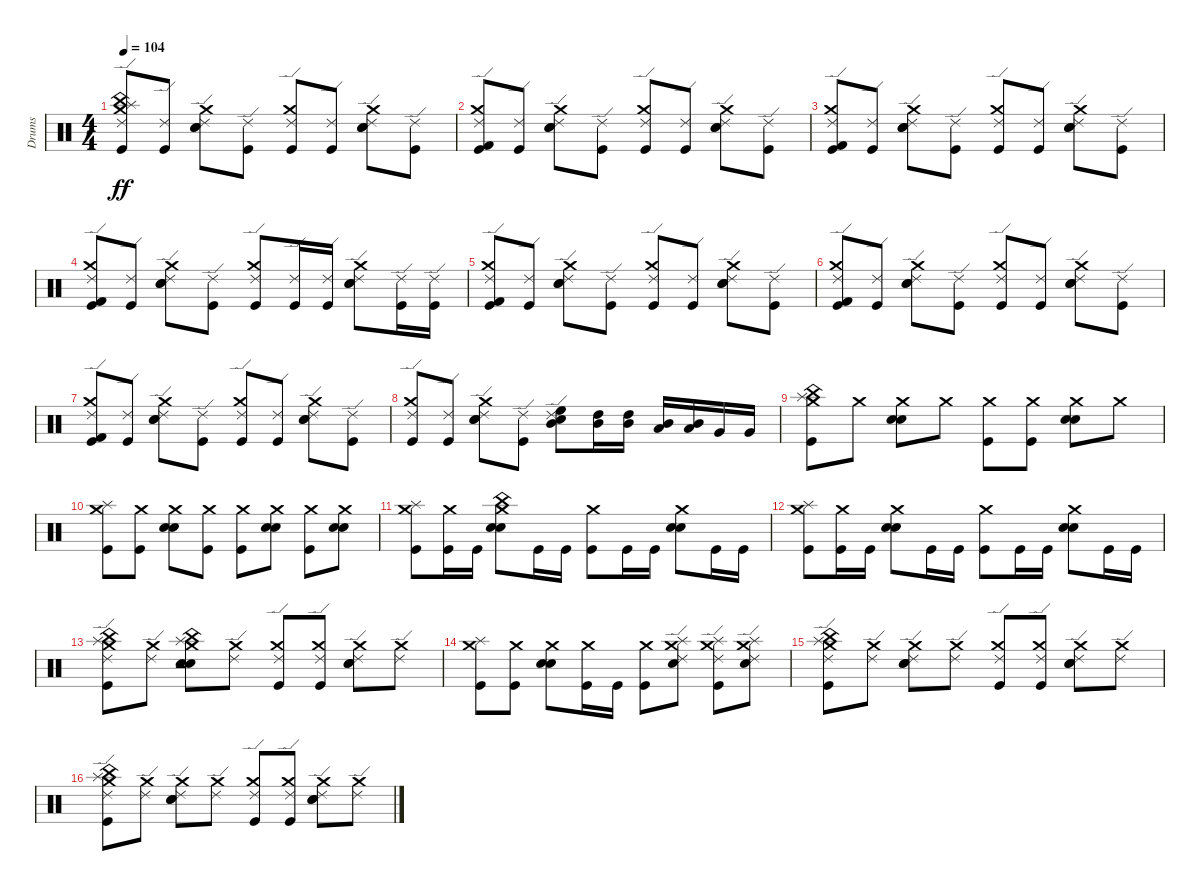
\track ("Drums" "Drums") {instrument percussion}
\staff {score}
\articulation defaults
\ts (4 4)
\tempo 104
\clef neutral
\ks c
("Kick (hit)" "China (hit)" "Splash (hit)" "Crash medium (hit)" "Ride (edge) 2").8{dy ff} ("Kick (hit)" "Ride (edge) 2").8 ("Snare (hit) 2" "Electric Snare (hit)" "Crash medium (hit)" "Ride (edge) 2").8 ("Kick (hit)" "Ride (edge) 2").8 ("Kick (hit)" "Crash medium (hit)" "Ride (edge) 2").8 ("Kick (hit)" "Ride (edge) 2").8 ("Snare (hit) 2" "Electric Snare (hit)" "Crash medium (hit)" "Ride (edge) 2").8 ("Kick (hit)" "Ride (edge) 2").8 |
("Kick (hit)" "Kick (hit) 2" "Crash medium (hit)" "Ride (edge) 2").8 ("Kick (hit)" "Ride (edge) 2").8 ("Snare (hit) 2" "Electric Snare (hit)" "Crash medium (hit)" "Ride (edge) 2").8 ("Kick (hit)" "Ride (edge) 2").8 ("Kick (hit)" "Crash medium (hit)" "Ride (edge) 2").8 ("Kick (hit)" "Ride (edge) 2").8 ("Snare (hit) 2" "Electric Snare (hit)" "Crash medium (hit)" "Ride (edge) 2").8 ("Kick (hit)" "Ride (edge) 2").8 |
("Kick (hit)" "Kick (hit) 2" "Crash medium (hit)" "Ride (edge) 2").8 ("Kick (hit)" "Ride (edge) 2").8 ("Snare (hit) 2" "Electric Snare (hit)" "Crash medium (hit)" "Ride (edge) 2").8 ("Kick (hit)" "Ride (edge) 2").8 ("Kick (hit)" "Crash medium (hit)" "Ride (edge) 2").8 ("Kick (hit)" "Ride (edge) 2").8 ("Snare (hit) 2" "Electric Snare (hit)" "Crash medium (hit)" "Ride (edge) 2").8 ("Kick (hit)" "Ride (edge) 2").8 |
("Kick (hit)" "Kick (hit) 2" "Crash medium (hit)" "Ride (edge) 2").8 ("Kick (hit)" "Ride (edge) 2").8 ("Snare (hit) 2" "Electric Snare (hit)" "Crash medium (hit)" "Ride (edge) 2").8 ("Kick (hit)" "Ride (edge) 2").8 ("Kick (hit)" "Crash medium (hit)" "Ride (edge) 2").8 ("Kick (hit)" "Ride (edge) 2").16 ("Kick (hit)" "Ride (edge) 2").16 ("Snare (hit) 2" "Electric Snare (hit)" "Crash medium (hit)" "Ride (edge) 2").8 ("Kick (hit)" "Ride (edge) 2").16 ("Kick (hit)" "Ride (edge) 2").16 |
("Kick (hit)" "Kick (hit) 2" "Crash medium (hit)" "Ride (edge) 2").8 ("Kick (hit)" "Ride (edge) 2").8 ("Snare (hit) 2" "Electric Snare (hit)" "Crash medium (hit)" "Ride (edge) 2").8 ("Kick (hit)" "Ride (edge) 2").8 ("Kick (hit)" "Crash medium (hit)" "Ride (edge) 2").8 ("Kick (hit)" "Ride (edge) 2").8 ("Snare (hit) 2" "Electric Snare (hit)" "Crash medium (hit)" "Ride (edge) 2").8 ("Kick (hit)" "Ride (edge) 2").8 |
("Kick (hit)" "Kick (hit) 2" "Crash medium (hit)" "Ride (edge) 2").8 ("Kick (hit)" "Ride (edge) 2").8 ("Snare (hit) 2" "Electric Snare (hit)" "Crash medium (hit)" "Ride (edge) 2").8 ("Kick (hit)" "Ride (edge) 2").8 ("Kick (hit)" "Crash medium (hit)" "Ride (edge) 2").8 ("Kick (hit)" "Ride (edge) 2").8 ("Snare (hit) 2" "Electric Snare (hit)" "Crash medium (hit)" "Ride (edge) 2").8 ("Kick (hit)" "Ride (edge) 2").8 |
("Kick (hit)" "Kick (hit) 2" "Crash medium (hit)" "Ride (edge) 2").8 ("Kick (hit)" "Ride (edge) 2").8 ("Snare (hit) 2" "Electric Snare (hit)" "Crash medium (hit)" "Ride (edge) 2").8 ("Kick (hit)" "Ride (edge) 2").8 ("Kick (hit)" "Crash medium (hit)" "Ride (edge) 2").8 ("Kick (hit)" "Ride (edge) 2").8 ("Snare (hit) 2" "Electric Snare (hit)" "Crash medium (hit)" "Ride (edge) 2").8 ("Kick (hit)" "Ride (edge) 2").8 |
("Kick (hit)" "Crash medium (hit)" "Ride (edge) 2").8 ("Kick (hit)" "Ride (edge) 2").8 ("Snare (hit) 2" "Electric Snare (hit)" "Crash medium (hit)" "Ride (edge) 2").8 ("Kick (hit)" "Ride (edge) 2").8 ("Snare (hit) 2" "Mid Tom (hit)" "High Floor Tom (hit)" "Ride (edge) 2").8 ("Mid Tom (hit)" "High Tom (hit)").16 ("Mid Tom (hit)" "High Tom (hit)").16 ("Low Tom (hit)" "Mid Tom (hit)").16 ("Low Tom (hit)" "Mid Tom (hit)").16 "Very Low Tom (hit)".16 "Very Low Tom (hit)".16 |
("Kick (hit)" "China (hit)" "Splash (hit)" "Crash medium (hit)").8 "Crash medium (hit)".8 ("Snare (hit) 2" "Electric Snare (hit)" "Crash medium (hit)").8 "Crash medium (hit)".8 ("Kick (hit)" "Crash medium (hit)").8 ("Kick (hit)" "Crash medium (hit)").8 ("Snare (hit) 2" "Electric Snare (hit)" "Crash medium (hit)").8 "Crash medium (hit)".8 |
("Kick (hit)" "Splash (hit)" "Crash medium (hit)").8 ("Kick (hit)" "Crash medium (hit)").8 ("Snare (hit) 2" "Electric Snare (hit)" "Crash medium (hit)").8 ("Kick (hit)" "Crash medium (hit)").8 ("Kick (hit)" "Crash medium (hit)").8 ("Snare (hit) 2" "Electric Snare (hit)" "Crash medium (hit)").8 ("Kick (hit)" "Crash medium (hit)").8 ("Snare (hit) 2" "Electric Snare (hit)" "Crash medium (hit)").8 |
("Kick (hit)" "Splash (hit)" "Crash medium (hit)").8 ("Kick (hit)" "Crash medium (hit)").16 "Kick (hit)".16 ("Snare (hit) 2" "Electric Snare (hit)" "China (hit)" "Crash medium (hit)").8 "Kick (hit)".16 "Kick (hit)".16 ("Kick (hit)" "Crash medium (hit)").8 "Kick (hit)".16 "Kick (hit)".16 ("Snare (hit) 2" "Electric Snare (hit)" "Crash medium (hit)").8 "Kick (hit)".16 "Kick (hit)".16 |
("Kick (hit)" "Splash (hit)" "Crash medium (hit)").8 ("Kick (hit)" "Crash medium (hit)").16 "Kick (hit)".16 ("Snare (hit) 2" "Electric Snare (hit)" "Crash medium (hit)").8 "Kick (hit)".16 "Kick (hit)".16 ("Kick (hit)" "Crash medium (hit)").8 "Kick (hit)".16 "Kick (hit)".16 ("Snare (hit) 2" "Electric Snare (hit)" "Crash medium (hit)").8 "Kick (hit)".16 "Kick (hit)".16 |
("Kick (hit)" "China (hit)" "Splash (hit)" "Crash medium (hit)" "Ride (edge) 2").8 ("Crash medium (hit)" "Ride (edge) 2").8 ("Snare (hit) 2" "Electric Snare (hit)" "China (hit)" "Tambourine (hit)" "Splash (hit)" "Crash medium (hit)").8 ("Crash medium (hit)" "Ride (edge) 2").8 ("Kick (hit)" "Crash medium (hit)" "Ride (edge) 2").8 ("Kick (hit)" "Crash medium (hit)" "Ride (edge) 2").8 ("Snare (hit) 2" "Electric Snare (hit)" "Crash medium (hit)" "Ride (edge) 2").8 ("Crash medium (hit)" "Ride (edge) 2").8 |
("Kick (hit)" "Splash (hit)" "Crash medium (hit)").8 ("Kick (hit)" "Crash medium (hit)").8 ("Snare (hit) 2" "Electric Snare (hit)" "Crash medium (hit)").8 ("Kick (hit)" "Crash medium (hit)").16 "Kick (hit)".16 ("Kick (hit)" "Crash medium (hit)").8 ("Electric Snare (hit)" "Splash (hit)" "Crash medium (hit)" "Ride (edge) 2").8 ("Kick (hit)" "Splash (hit)" "Crash medium (hit)" "Ride (edge) 2").8 ("Electric Snare (hit)" "Splash (hit)" "Crash medium (hit)" "Ride (edge) 2").8 |
("Kick (hit)" "China (hit)" "Splash (hit)" "Crash medium (hit)" "Ride (edge) 2").8 ("Crash medium (hit)" "Ride (edge) 2").8 ("Snare (hit) 2" "Electric Snare (hit)" "Crash medium (hit)" "Ride (edge) 2").8 ("Crash medium (hit)" "Ride (edge) 2").8 ("Kick (hit)" "Crash medium (hit)" "Ride (edge) 2").8 ("Kick (hit)" "Crash medium (hit)" "Ride (edge) 2").8 ("Snare (hit) 2" "Electric Snare (hit)" "Crash medium (hit)" "Ride (edge) 2").8 ("Crash medium (hit)" "Ride (edge) 2").8 |
("Kick (hit)" "China (hit)" "Splash (hit)" "Crash medium (hit)" "Ride (edge) 2").8 ("Crash medium (hit)" "Ride (edge) 2").8 ("Snare (hit) 2" "Electric Snare (hit)" "Crash medium (hit)" "Ride (edge) 2").8 ("Crash medium (hit)" "Ride (edge) 2").8 ("Kick (hit)" "Crash medium (hit)" "Ride (edge) 2").8 ("Kick (hit)" "Crash medium (hit)" "Ride (edge) 2").8 ("Snare (hit) 2" "Electric Snare (hit)" "Crash medium (hit)" "Ride (edge) 2").8 ("Crash medium (hit)" "Ride (edge) 2").8
